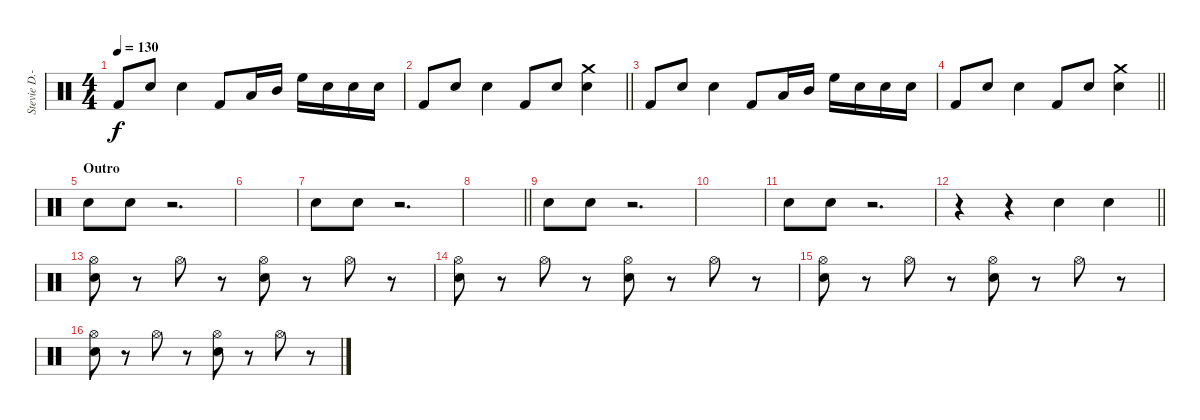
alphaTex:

\track ("Stevie D.-Drums" "Stevie D.-") {instrument percussion}
\staff {score}
\articulation defaults
\ts (4 4)
\tempo 130
\clef neutral
\ks c "Kick (hit) 2".8{dy f} "Snare (hit) 2".8 "Electric Snare (hit)".4 "Kick (hit) 2".8 "Low Tom (hit)".16 "Mid Tom (hit)".16 "High Floor Tom (hit)".16 "Electric Snare (hit)".16 "Electric Snare (hit)".16 "Electric Snare (hit)".16
|
\barLineRight lightlight "Kick (hit) 2".8 "Snare (hit) 2".8 "Electric Snare (hit)".4 "Kick (hit) 2".8 "Snare (hit) 2".8
("Electric Snare (hit)" "Crash medium (hit)").4 |
"Kick (hit) 2".8 "Snare (hit) 2".8 "Electric Snare (hit)".4 "Kick (hit) 2".8 "Low Tom (hit)".16 "Mid Tom (hit)".16 "High Floor Tom (hit)".16 "Electric Snare (hit)".16 "Electric Snare (hit)".16 "Electric Snare (hit)".16 |
\barLineRight lightlight "Kick (hit) 2".8 "Snare (hit) 2".8 "Electric Snare (hit)".4 "Kick (hit) 2".8 "Snare (hit) 2".8
("Electric Snare (hit)" "Crash medium (hit)").4 |
\section ("" "Outro")
"Electric Snare (hit)".8 "Electric Snare (hit)".8 r.2{d} |
|
"Electric Snare (hit)".8 "Electric Snare (hit)".8 r.2{d} |
\barLineRight lightlight
|
"Electric Snare (hit)".8 "Electric Snare (hit)".8 r.2{d} |
|
"Electric Snare (hit)".8 "Electric Snare (hit)".8 r.2{d} |
\barLineRight lightlight
r.4 r.4 "Snare (hit) 2".4 "Snare (hit) 2".4 |
("Snare (hit) 2" "Hi-Hat (open)").8 r.8 "Hi-Hat (open)".8 r.8 ("Snare (hit) 2" "Hi-Hat (open)").8 r.8 "Hi-Hat (open)".8 r.8 |
("Snare (hit) 2" "Hi-Hat (open)").8 r.8 "Hi-Hat (open)".8 r.8 ("Snare (hit) 2" "Hi-Hat (open)").8 r.8 "Hi-Hat (open)".8 r.8 |
("Snare (hit) 2" "Hi-Hat (open)").8 r.8 "Hi-Hat (open)".8 r.8 ("Snare (hit) 2" "Hi-Hat (open)").8 r.8 "Hi-Hat (open)".8 r.8 |
("Snare (hit) 2" "Hi-Hat (open)").8 r.8 "Hi-Hat (open)".8 r.8 ("Snare (hit) 2" "Hi-Hat (open)").8 r.8 "Hi-Hat (open)".8 r.8
